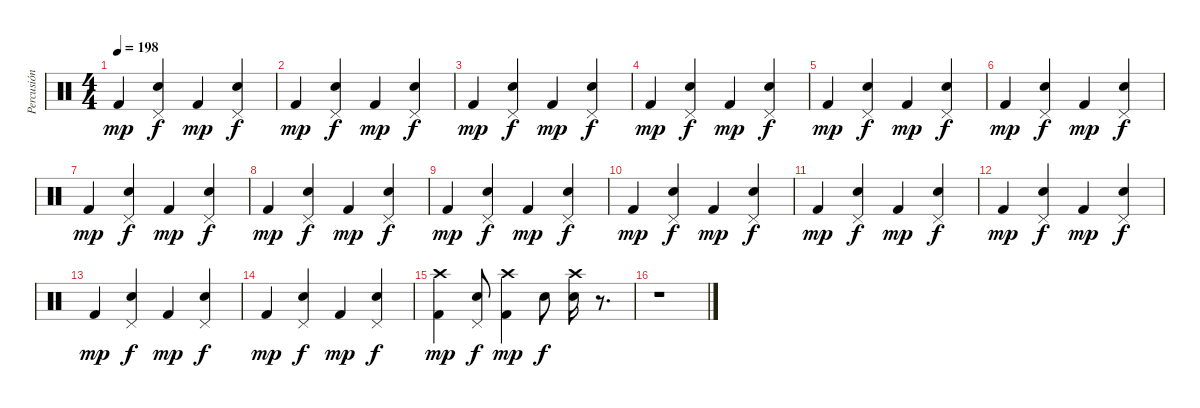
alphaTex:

\track ("Percusión" "Percusión") {instrument percussion}
\staff {score}
\articulation defaults
\ts (4 4)
\tempo 198
\clef neutral
\ks c "Kick (hit) 2".4{dy mp}
("Pedal Hi-Hat (hit)" "Snare (hit) 2").4{dy f} "Kick (hit) 2".4{dy mp} ("Pedal Hi-Hat (hit)" "Snare (hit) 2").4{dy f} |
"Kick (hit) 2".4{dy mp} ("Pedal Hi-Hat (hit)" "Snare (hit) 2").4{dy f} "Kick (hit) 2".4{dy mp} ("Pedal Hi-Hat (hit)" "Snare (hit) 2").4{dy f} |
"Kick (hit) 2".4{dy mp} ("Pedal Hi-Hat (hit)" "Snare (hit) 2").4{dy f} "Kick (hit) 2".4{dy mp} ("Pedal Hi-Hat (hit)" "Snare (hit) 2").4{dy f} |
"Kick (hit) 2".4{dy mp} ("Pedal Hi-Hat (hit)" "Snare (hit) 2").4{dy f} "Kick (hit) 2".4{dy mp} ("Pedal Hi-Hat (hit)" "Snare (hit) 2").4{dy f} |
"Kick (hit) 2".4{dy mp} ("Pedal Hi-Hat (hit)" "Snare (hit) 2").4{dy f} "Kick (hit) 2".4{dy mp} ("Pedal Hi-Hat (hit)" "Snare (hit) 2").4{dy f} |
"Kick (hit) 2".4{dy mp} ("Pedal Hi-Hat (hit)" "Snare (hit) 2").4{dy f} "Kick (hit) 2".4{dy mp} ("Pedal Hi-Hat (hit)" "Snare (hit) 2").4{dy f} |
"Kick (hit) 2".4{dy mp} ("Pedal Hi-Hat (hit)" "Snare (hit) 2").4{dy f} "Kick (hit) 2".4{dy mp} ("Pedal Hi-Hat (hit)" "Snare (hit) 2").4{dy f} |
"Kick (hit) 2".4{dy mp} ("Pedal Hi-Hat (hit)" "Snare (hit) 2").4{dy f} "Kick (hit) 2".4{dy mp} ("Pedal Hi-Hat (hit)" "Snare (hit) 2").4{dy f} |
"Kick (hit) 2".4{dy mp} ("Pedal Hi-Hat (hit)" "Snare (hit) 2").4{dy f} "Kick (hit) 2".4{dy mp} ("Pedal Hi-Hat (hit)" "Snare (hit) 2").4{dy f} |
"Kick (hit) 2".4{dy mp} ("Pedal Hi-Hat (hit)" "Snare (hit) 2").4{dy f} "Kick (hit) 2".4{dy mp} ("Pedal Hi-Hat (hit)" "Snare (hit) 2").4{dy f} |
"Kick (hit) 2".4{dy mp} ("Pedal Hi-Hat (hit)" "Snare (hit) 2").4{dy f} "Kick (hit) 2".4{dy mp} ("Pedal Hi-Hat (hit)" "Snare (hit) 2").4{dy f} |
"Kick (hit) 2".4{dy mp} ("Pedal Hi-Hat (hit)" "Snare (hit) 2").4{dy f} "Kick (hit) 2".4{dy mp} ("Pedal Hi-Hat (hit)" "Snare (hit) 2").4{dy f} |
"Kick (hit) 2".4{dy mp} ("Pedal Hi-Hat (hit)" "Snare (hit) 2").4{dy f} "Kick (hit) 2".4{dy mp} ("Pedal Hi-Hat (hit)" "Snare (hit) 2").4{dy f} |
"Kick (hit) 2".4{dy mp} ("Pedal Hi-Hat (hit)" "Snare (hit) 2").4{dy f} "Kick (hit) 2".4{dy mp} ("Pedal Hi-Hat (hit)" "Snare (hit) 2").4{dy f} |
("Crash high (hit)" "Kick (hit) 2").4{dy mp} ("Pedal Hi-Hat (hit)" "Snare (hit) 2").8{dy f} ("Crash high (hit)" "Kick (hit) 2").4{dy mp} "Snare (hit) 2".8{dy f} ("Crash high (hit)" "Snare (hit) 2").16 r.8{d} |
r.1
